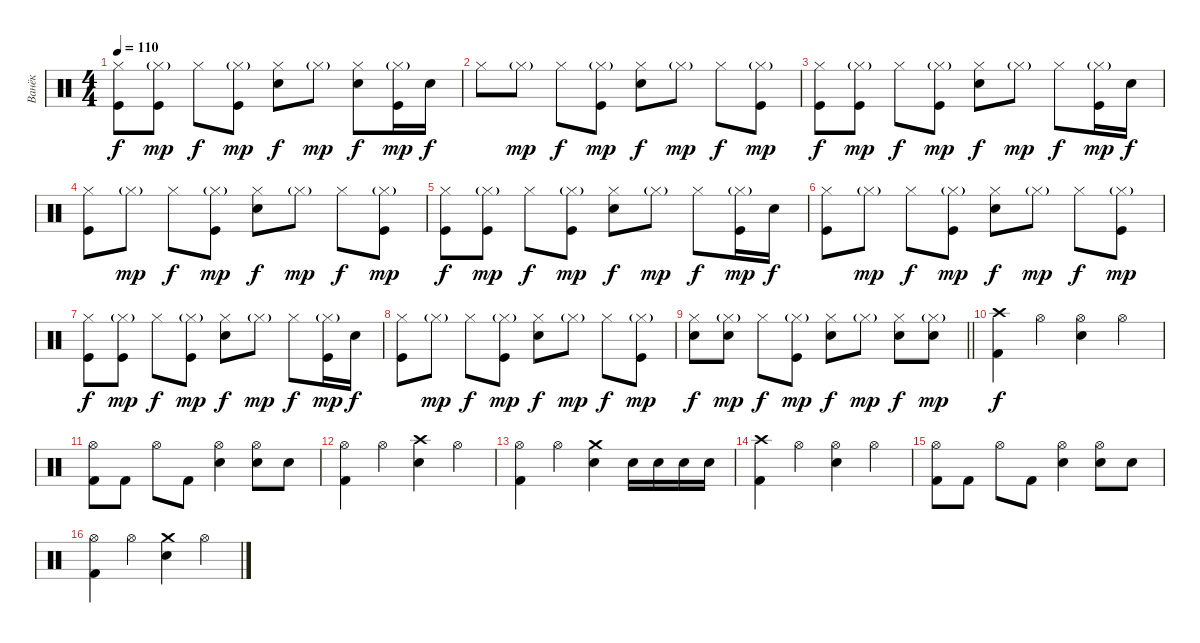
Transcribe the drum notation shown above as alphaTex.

\track ("Ванёк" "Ванёк") {instrument percussion}
\staff {score}
\articulation defaults
\ts (4 4)
\tempo 110
\clef neutral
\ks c
("Kick (hit)" "Hi-Hat (closed)").8{dy f} ("Kick (hit)" "Hi-Hat (closed)"{g}).8{dy mp} "Hi-Hat (closed)".8{dy f} ("Kick (hit)" "Hi-Hat (closed)"{g}).8{dy mp} ("Hi-Hat (closed)" "Electric Snare (hit)").8{dy f} "Hi-Hat (closed)"{g}.8{dy mp} ("Hi-Hat (closed)" "Electric Snare (hit)").8{dy f} ("Kick (hit)" "Hi-Hat (closed)"{g}).16{dy mp} "Electric Snare (hit)".16{dy f} |
"Hi-Hat (closed)".8 "Hi-Hat (closed)"{g}.8{dy mp} "Hi-Hat (closed)".8{dy f} ("Kick (hit)" "Hi-Hat (closed)"{g}).8{dy mp} ("Hi-Hat (closed)" "Electric Snare (hit)").8{dy f} "Hi-Hat (closed)"{g}.8{dy mp} "Hi-Hat (closed)".8{dy f} ("Kick (hit)" "Hi-Hat (closed)"{g}).8{dy mp} |
("Kick (hit)" "Hi-Hat (closed)").8{dy f} ("Kick (hit)" "Hi-Hat (closed)"{g}).8{dy mp} "Hi-Hat (closed)".8{dy f} ("Kick (hit)" "Hi-Hat (closed)"{g}).8{dy mp} ("Hi-Hat (closed)" "Electric Snare (hit)").8{dy f} "Hi-Hat (closed)"{g}.8{dy mp} "Hi-Hat (closed)".8{dy f} ("Kick (hit)" "Hi-Hat (closed)"{g}).16{dy mp} "Electric Snare (hit)".16{dy f} |
("Kick (hit)" "Hi-Hat (closed)").8 "Hi-Hat (closed)"{g}.8{dy mp} "Hi-Hat (closed)".8{dy f} ("Kick (hit)" "Hi-Hat (closed)"{g}).8{dy mp} ("Hi-Hat (closed)" "Electric Snare (hit)").8{dy f} "Hi-Hat (closed)"{g}.8{dy mp} "Hi-Hat (closed)".8{dy f} ("Kick (hit)" "Hi-Hat (closed)"{g}).8{dy mp} |
("Kick (hit)" "Hi-Hat (closed)").8{dy f} ("Kick (hit)" "Hi-Hat (closed)"{g}).8{dy mp} "Hi-Hat (closed)".8{dy f} ("Kick (hit)" "Hi-Hat (closed)"{g}).8{dy mp} ("Hi-Hat (closed)" "Electric Snare (hit)").8{dy f} "Hi-Hat (closed)"{g}.8{dy mp} "Hi-Hat (closed)".8{dy f} ("Kick (hit)" "Hi-Hat (closed)"{g}).16{dy mp} "Electric Snare (hit)".16{dy f} |
("Kick (hit)" "Hi-Hat (closed)").8 "Hi-Hat (closed)"{g}.8{dy mp} "Hi-Hat (closed)".8{dy f} ("Kick (hit)" "Hi-Hat (closed)"{g}).8{dy mp} ("Hi-Hat (closed)" "Electric Snare (hit)").8{dy f} "Hi-Hat (closed)"{g}.8{dy mp} "Hi-Hat (closed)".8{dy f} ("Kick (hit)" "Hi-Hat (closed)"{g}).8{dy mp} |
("Kick (hit)" "Hi-Hat (closed)").8{dy f} ("Kick (hit)" "Hi-Hat (closed)"{g}).8{dy mp} "Hi-Hat (closed)".8{dy f} ("Kick (hit)" "Hi-Hat (closed)"{g}).8{dy mp} ("Hi-Hat (closed)" "Electric Snare (hit)").8{dy f} "Hi-Hat (closed)"{g}.8{dy mp} "Hi-Hat (closed)".8{dy f} ("Kick (hit)" "Hi-Hat (closed)"{g}).16{dy mp} "Electric Snare (hit)".16{dy f} |
("Kick (hit)" "Hi-Hat (closed)").8 "Hi-Hat (closed)"{g}.8{dy mp} "Hi-Hat (closed)".8{dy f} ("Kick (hit)" "Hi-Hat (closed)"{g}).8{dy mp} ("Hi-Hat (closed)" "Electric Snare (hit)").8{dy f} "Hi-Hat (closed)"{g}.8{dy mp} "Hi-Hat (closed)".8{dy f} ("Kick (hit)" "Hi-Hat (closed)"{g}).8{dy mp} |
\barLineRight lightlight
("Hi-Hat (closed)" "Electric Snare (hit)").8{dy f} ("Hi-Hat (closed)"{g} "Electric Snare (hit)").8{dy mp} "Hi-Hat (closed)".8{dy f} ("Kick (hit)" "Hi-Hat (closed)"{g}).8{dy mp} ("Hi-Hat (closed)" "Electric Snare (hit)").8{dy f} "Hi-Hat (closed)"{g}.8{dy mp} ("Hi-Hat (closed)" "Electric Snare (hit)").8{dy f} ("Hi-Hat (closed)"{g} "Electric Snare (hit)").8{dy mp} |
("Crash high (hit)" "Kick (hit) 2").4{dy f} "Hi-Hat (open)".4 ("Hi-Hat (open)" "Electric Snare (hit)").4 "Hi-Hat (open)".4 |
("Hi-Hat (open)" "Kick (hit) 2").8 "Kick (hit) 2".8 "Hi-Hat (open)".8 "Kick (hit) 2".8 ("Hi-Hat (open)" "Electric Snare (hit)").4 ("Hi-Hat (open)" "Electric Snare (hit)").8 "Electric Snare (hit)".8 |
("Hi-Hat (open)" "Kick (hit) 2").4 "Hi-Hat (open)".4 ("Crash high (hit)" "Electric Snare (hit)").4 "Hi-Hat (open)".4 |
("Hi-Hat (open)" "Kick (hit) 2").4 "Hi-Hat (open)".4 ("Crash medium (hit)" "Electric Snare (hit)").4 "Electric Snare (hit)".16 "Electric Snare (hit)".16 "Electric Snare (hit)".16 "Electric Snare (hit)".16 |
("Crash high (hit)" "Kick (hit) 2").4 "Hi-Hat (open)".4 ("Hi-Hat (open)" "Electric Snare (hit)").4 "Hi-Hat (open)".4 |
("Hi-Hat (open)" "Kick (hit) 2").8 "Kick (hit) 2".8 "Hi-Hat (open)".8 "Kick (hit) 2".8 ("Hi-Hat (open)" "Electric Snare (hit)").4 ("Hi-Hat (open)" "Electric Snare (hit)").8 "Electric Snare (hit)".8 |
("Hi-Hat (open)" "Kick (hit) 2").4 "Hi-Hat (open)".4 ("Crash medium (hit)" "Electric Snare (hit)").4 "Hi-Hat (open)".4
